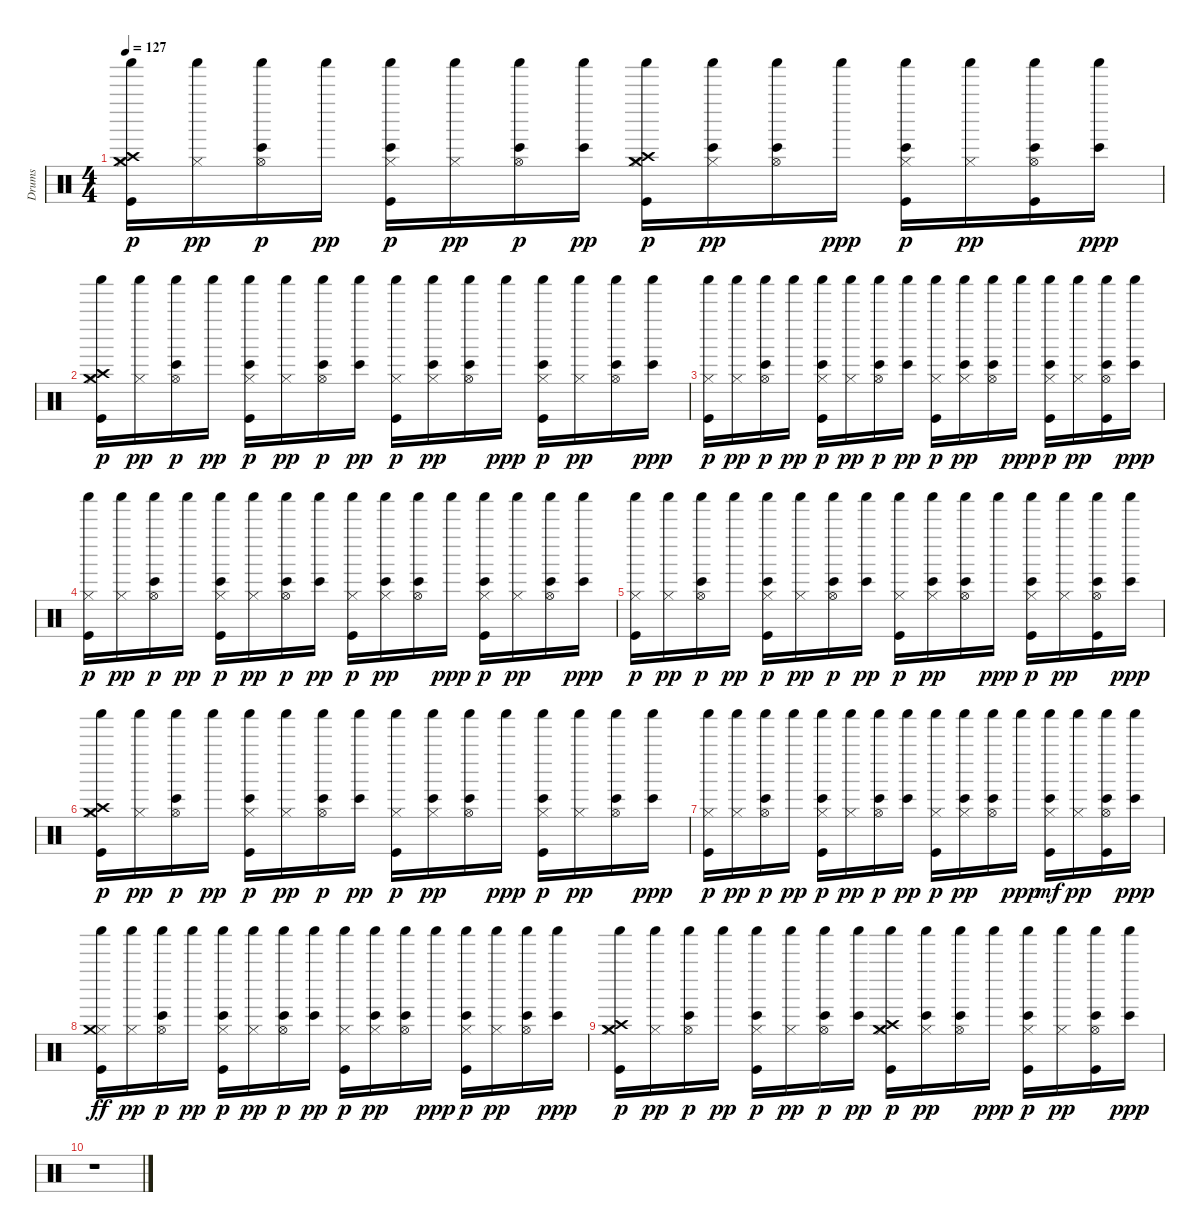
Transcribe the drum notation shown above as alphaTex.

\track ("Drums" "Drums") {instrument percussion}
\staff {score}
\articulation defaults
\ts (4 4)
\tempo 127
\clef neutral
\ks c
("Shaker (hit)" "Crash medium (hit)" "Kick (hit)" "Crash high (hit)" "Hi-Hat (closed)").16{dy p volume 12} ("Hi-Hat (closed)" "Shaker (hit)").16{dy pp volume 12} ("Bongo High (hit)" "Hi-Hat (open)" "Shaker (hit)").16{dy p volume 12} "Shaker (hit)".16{dy pp volume 12} ("Bongo High (hit)" "Kick (hit)" "Hi-Hat (closed)" "Shaker (hit)").16{dy p volume 12} ("Hi-Hat (closed)" "Shaker (hit)").16{dy pp volume 11} ("Bongo High (hit)" "Hi-Hat (open)" "Shaker (hit)").16{dy p volume 11} ("Bongo High (hit)" "Shaker (hit)").16{dy pp volume 11} ("Shaker (hit)" "Crash high (hit)" "Kick (hit)" "Crash medium (hit)" "Hi-Hat (closed)").16{dy p volume 11} ("Bongo High (hit)" "Hi-Hat (closed)" "Shaker (hit)").16{dy pp volume 11} ("Bongo High (hit)" "Hi-Hat (open)" "Shaker (hit)").16{volume 11} "Shaker (hit)".16{dy ppp volume 11} ("Bongo High (hit)" "Kick (hit)" "Hi-Hat (closed)" "Shaker (hit)").16{dy p volume 11} ("Hi-Hat (closed)" "Shaker (hit)").16{dy pp volume 11} ("Kick (hit)" "Bongo High (hit)" "Hi-Hat (open)" "Shaker (hit)").16{volume 11} ("Bongo High (hit)" "Shaker (hit)").16{dy ppp volume 10} |
("Hi-Hat (closed)" "Crash medium (hit)" "Shaker (hit)" "Crash high (hit)" "Kick (hit)").16{dy p volume 10} ("Hi-Hat (closed)" "Shaker (hit)").16{dy pp volume 10} ("Bongo High (hit)" "Hi-Hat (open)" "Shaker (hit)").16{dy p volume 10} "Shaker (hit)".16{dy pp volume 10} ("Bongo High (hit)" "Kick (hit)" "Hi-Hat (closed)" "Shaker (hit)").16{dy p volume 10} ("Hi-Hat (closed)" "Shaker (hit)").16{dy pp volume 10} ("Bongo High (hit)" "Hi-Hat (open)" "Shaker (hit)").16{dy p volume 10} ("Bongo High (hit)" "Shaker (hit)").16{dy pp volume 10} ("Kick (hit)" "Hi-Hat (closed)" "Shaker (hit)").16{dy p volume 10} ("Bongo High (hit)" "Hi-Hat (closed)" "Shaker (hit)").16{dy pp volume 10} ("Bongo High (hit)" "Hi-Hat (open)" "Shaker (hit)").16{volume 10} "Shaker (hit)".16{dy ppp volume 10} ("Bongo High (hit)" "Kick (hit)" "Hi-Hat (closed)" "Shaker (hit)").16{dy p volume 9} ("Hi-Hat (closed)" "Shaker (hit)").16{dy pp volume 9} ("Bongo High (hit)" "Hi-Hat (open)" "Shaker (hit)").16{volume 9} ("Bongo High (hit)" "Shaker (hit)").16{dy ppp volume 9} |
("Kick (hit)" "Hi-Hat (closed)" "Shaker (hit)").16{dy p volume 9} ("Hi-Hat (closed)" "Shaker (hit)").16{dy pp volume 9} ("Bongo High (hit)" "Hi-Hat (open)" "Shaker (hit)").16{dy p volume 9} "Shaker (hit)".16{dy pp volume 9} ("Bongo High (hit)" "Kick (hit)" "Hi-Hat (closed)" "Shaker (hit)").16{dy p volume 9} ("Hi-Hat (closed)" "Shaker (hit)").16{dy pp volume 9} ("Bongo High (hit)" "Hi-Hat (open)" "Shaker (hit)").16{dy p volume 9} ("Bongo High (hit)" "Shaker (hit)").16{dy pp volume 8} ("Kick (hit)" "Hi-Hat (closed)" "Shaker (hit)").16{dy p volume 8} ("Bongo High (hit)" "Hi-Hat (closed)" "Shaker (hit)").16{dy pp volume 8} ("Bongo High (hit)" "Hi-Hat (open)" "Shaker (hit)").16{volume 8} "Shaker (hit)".16{dy ppp volume 8} ("Bongo High (hit)" "Kick (hit)" "Hi-Hat (closed)" "Shaker (hit)").16{dy p volume 8} ("Hi-Hat (closed)" "Shaker (hit)").16{dy pp volume 8} ("Kick (hit)" "Bongo High (hit)" "Hi-Hat (open)" "Shaker (hit)").16{volume 8} ("Bongo High (hit)" "Shaker (hit)").16{dy ppp volume 8} |
("Kick (hit)" "Hi-Hat (closed)" "Shaker (hit)").16{dy p volume 8} ("Hi-Hat (closed)" "Shaker (hit)").16{dy pp volume 8} ("Bongo High (hit)" "Hi-Hat (open)" "Shaker (hit)").16{dy p volume 8} "Shaker (hit)".16{dy pp volume 8} ("Bongo High (hit)" "Kick (hit)" "Hi-Hat (closed)" "Shaker (hit)").16{dy p volume 7} ("Hi-Hat (closed)" "Shaker (hit)").16{dy pp volume 7} ("Bongo High (hit)" "Hi-Hat (open)" "Shaker (hit)").16{dy p volume 7} ("Bongo High (hit)" "Shaker (hit)").16{dy pp volume 7} ("Kick (hit)" "Hi-Hat (closed)" "Shaker (hit)").16{dy p volume 7} ("Bongo High (hit)" "Hi-Hat (closed)" "Shaker (hit)").16{dy pp volume 7} ("Bongo High (hit)" "Hi-Hat (open)" "Shaker (hit)").16{volume 7} "Shaker (hit)".16{dy ppp volume 7} ("Bongo High (hit)" "Kick (hit)" "Hi-Hat (closed)" "Shaker (hit)").16{dy p volume 7} ("Hi-Hat (closed)" "Shaker (hit)").16{dy pp volume 7} ("Bongo High (hit)" "Hi-Hat (open)" "Shaker (hit)").16{volume 6} ("Bongo High (hit)" "Shaker (hit)").16{dy ppp volume 6} |
("Kick (hit)" "Hi-Hat (closed)" "Shaker (hit)").16{dy p volume 6} ("Hi-Hat (closed)" "Shaker (hit)").16{dy pp volume 6} ("Bongo High (hit)" "Hi-Hat (open)" "Shaker (hit)").16{dy p volume 6} "Shaker (hit)".16{dy pp volume 6} ("Bongo High (hit)" "Kick (hit)" "Hi-Hat (closed)" "Shaker (hit)").16{dy p volume 6} ("Hi-Hat (closed)" "Shaker (hit)").16{dy pp volume 6} ("Bongo High (hit)" "Hi-Hat (open)" "Shaker (hit)").16{dy p volume 6} ("Bongo High (hit)" "Shaker (hit)").16{dy pp volume 6} ("Kick (hit)" "Hi-Hat (closed)" "Shaker (hit)").16{dy p volume 6} ("Bongo High (hit)" "Hi-Hat (closed)" "Shaker (hit)").16{dy pp volume 6} ("Bongo High (hit)" "Hi-Hat (open)" "Shaker (hit)").16{volume 6} "Shaker (hit)".16{dy ppp volume 5} ("Bongo High (hit)" "Kick (hit)" "Hi-Hat (closed)" "Shaker (hit)").16{dy p volume 5} ("Hi-Hat (closed)" "Shaker (hit)").16{dy pp volume 5} ("Kick (hit)" "Bongo High (hit)" "Hi-Hat (open)" "Shaker (hit)").16{volume 5} ("Bongo High (hit)" "Shaker (hit)").16{dy ppp volume 5} |
("Kick (hit)" "Hi-Hat (closed)" "Crash medium (hit)" "Shaker (hit)" "Crash high (hit)").16{dy p volume 5} ("Hi-Hat (closed)" "Shaker (hit)").16{dy pp volume 5} ("Bongo High (hit)" "Hi-Hat (open)" "Shaker (hit)").16{dy p volume 5} "Shaker (hit)".16{dy pp volume 5} ("Bongo High (hit)" "Kick (hit)" "Hi-Hat (closed)" "Shaker (hit)").16{dy p volume 5} ("Hi-Hat (closed)" "Shaker (hit)").16{dy pp volume 4} ("Bongo High (hit)" "Hi-Hat (open)" "Shaker (hit)").16{dy p volume 4} ("Bongo High (hit)" "Shaker (hit)").16{dy pp volume 4} ("Kick (hit)" "Hi-Hat (closed)" "Shaker (hit)").16{dy p volume 4} ("Bongo High (hit)" "Hi-Hat (closed)" "Shaker (hit)").16{dy pp volume 4} ("Bongo High (hit)" "Hi-Hat (open)" "Shaker (hit)").16{volume 4} "Shaker (hit)".16{dy ppp volume 4} ("Bongo High (hit)" "Kick (hit)" "Hi-Hat (closed)" "Shaker (hit)").16{dy p volume 4} ("Hi-Hat (closed)" "Shaker (hit)").16{dy pp volume 4} ("Bongo High (hit)" "Hi-Hat (open)" "Shaker (hit)").16{volume 4} ("Bongo High (hit)" "Shaker (hit)").16{dy ppp volume 4} |
("Kick (hit)" "Hi-Hat (closed)" "Shaker (hit)").16{dy p volume 4} ("Hi-Hat (closed)" "Shaker (hit)").16{dy pp volume 4} ("Bongo High (hit)" "Hi-Hat (open)" "Shaker (hit)").16{dy p volume 3} "Shaker (hit)".16{dy pp volume 3} ("Bongo High (hit)" "Kick (hit)" "Hi-Hat (closed)" "Shaker (hit)").16{dy p volume 3} ("Hi-Hat (closed)" "Shaker (hit)").16{dy pp volume 3} ("Bongo High (hit)" "Hi-Hat (open)" "Shaker (hit)").16{dy p volume 3} ("Bongo High (hit)" "Shaker (hit)").16{dy pp volume 3} ("Kick (hit)" "Hi-Hat (closed)" "Shaker (hit)").16{dy p volume 3} ("Bongo High (hit)" "Hi-Hat (closed)" "Shaker (hit)").16{dy pp volume 3} ("Bongo High (hit)" "Hi-Hat (open)" "Shaker (hit)").16{volume 3} "Shaker (hit)".16{dy ppp volume 3} ("Kick (hit)" "Hi-Hat (closed)" "Shaker (hit)" "Bongo High (hit)").16{dy mf volume 2} ("Hi-Hat (closed)" "Shaker (hit)").16{dy pp volume 2} ("Kick (hit)" "Bongo High (hit)" "Hi-Hat (open)" "Shaker (hit)").16{volume 2} ("Bongo High (hit)" "Shaker (hit)").16{dy ppp volume 2} |
("Hi-Hat (closed)" "Shaker (hit)" "Crash medium (hit)" "Kick (hit)").16{dy ff volume 2} ("Hi-Hat (closed)" "Shaker (hit)").16{dy pp volume 2} ("Bongo High (hit)" "Hi-Hat (open)" "Shaker (hit)").16{dy p volume 2} "Shaker (hit)".16{dy pp volume 2} ("Bongo High (hit)" "Kick (hit)" "Hi-Hat (closed)" "Shaker (hit)").16{dy p volume 2} ("Hi-Hat (closed)" "Shaker (hit)").16{dy pp volume 2} ("Bongo High (hit)" "Hi-Hat (open)" "Shaker (hit)").16{dy p volume 2} ("Bongo High (hit)" "Shaker (hit)").16{dy pp volume 2} ("Kick (hit)" "Hi-Hat (closed)" "Shaker (hit)").16{dy p volume 2} ("Bongo High (hit)" "Hi-Hat (closed)" "Shaker (hit)").16{dy pp volume 1} ("Bongo High (hit)" "Hi-Hat (open)" "Shaker (hit)").16{volume 1} "Shaker (hit)".16{dy ppp volume 1} ("Bongo High (hit)" "Kick (hit)" "Hi-Hat (closed)" "Shaker (hit)").16{dy p volume 1} ("Hi-Hat (closed)" "Shaker (hit)").16{dy pp volume 1} ("Bongo High (hit)" "Hi-Hat (open)" "Shaker (hit)").16{volume 1} ("Bongo High (hit)" "Shaker (hit)").16{dy ppp volume 1} |
("Shaker (hit)" "Crash medium (hit)" "Kick (hit)" "Crash high (hit)" "Hi-Hat (closed)").16{dy p volume 1} ("Hi-Hat (closed)" "Shaker (hit)").16{dy pp volume 1} ("Bongo High (hit)" "Hi-Hat (open)" "Shaker (hit)").16{dy p volume 1} "Shaker (hit)".16{dy pp volume 0} ("Bongo High (hit)" "Kick (hit)" "Hi-Hat (closed)" "Shaker (hit)").16{dy p volume 0} ("Hi-Hat (closed)" "Shaker (hit)").16{dy pp volume 0} ("Bongo High (hit)" "Hi-Hat (open)" "Shaker (hit)").16{dy p volume 0} ("Bongo High (hit)" "Shaker (hit)").16{dy pp volume 0} ("Shaker (hit)" "Crash high (hit)" "Kick (hit)" "Crash medium (hit)" "Hi-Hat (closed)").16{dy p} ("Bongo High (hit)" "Hi-Hat (closed)" "Shaker (hit)").16{dy pp} ("Bongo High (hit)" "Hi-Hat (open)" "Shaker (hit)").16 "Shaker (hit)".16{dy ppp} ("Bongo High (hit)" "Kick (hit)" "Hi-Hat (closed)" "Shaker (hit)").16{dy p} ("Hi-Hat (closed)" "Shaker (hit)").16{dy pp} ("Kick (hit)" "Bongo High (hit)" "Hi-Hat (open)" "Shaker (hit)").16 ("Bongo High (hit)" "Shaker (hit)").16{dy ppp} |
r.1
